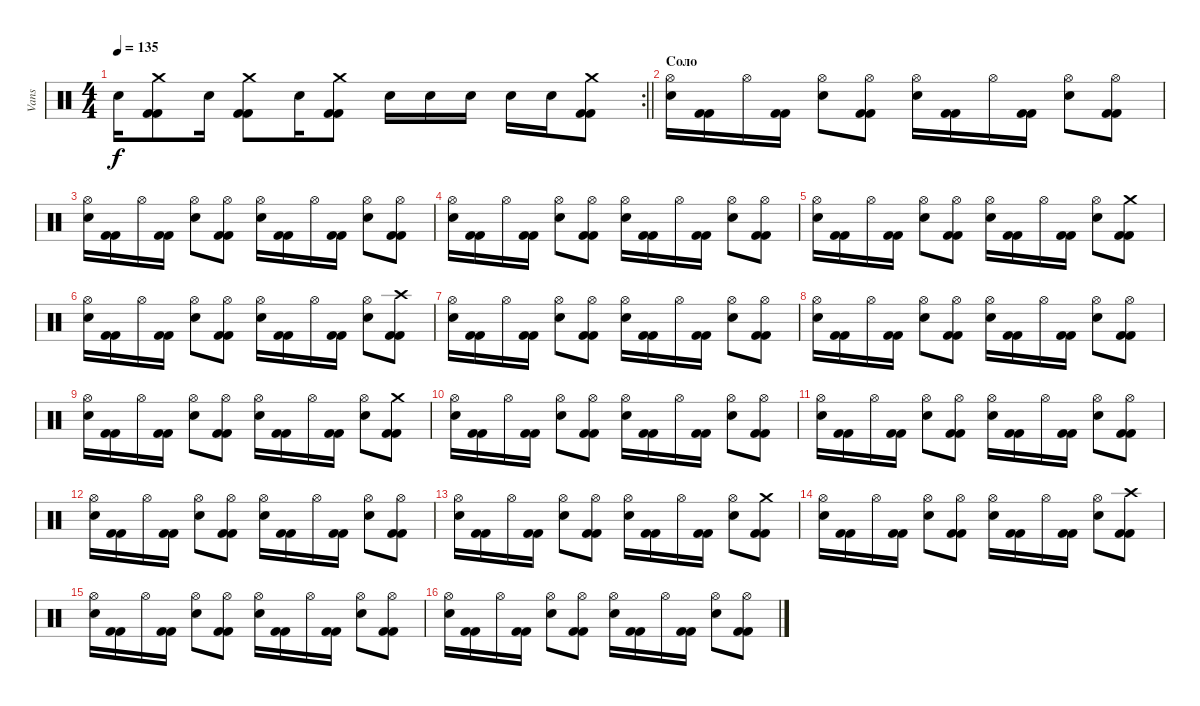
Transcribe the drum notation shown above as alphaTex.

\track ("Vans" "Vans") {instrument percussion}
\staff {score}
\articulation defaults
\rc 2
\ts (4 4)
\tempo 135
\clef neutral
\barLineRight lightlight
\ks c "Electric Snare (hit)".16{dy f}
("Crash medium (hit)" "Kick (hit) 2" "Kick (hit) 2").8 "Electric Snare (hit)".16 ("Crash medium (hit)" "Kick (hit) 2" "Kick (hit) 2").8 "Electric Snare (hit)".16 ("Crash medium (hit)" "Kick (hit) 2" "Kick (hit) 2").8 "Electric Snare (hit)".16 "Electric Snare (hit)".16 "Electric Snare (hit)".16 "Electric Snare (hit)".16 "Electric Snare (hit)".16 ("Crash medium (hit)" "Kick (hit) 2" "Kick (hit) 2").8 |
\section ("" "Соло")
("Hi-Hat (open)" "Electric Snare (hit)").16 ("Kick (hit) 2" "Kick (hit) 2").16 "Hi-Hat (open)".16 ("Kick (hit) 2" "Kick (hit) 2").16 ("Hi-Hat (open)" "Electric Snare (hit)").8 ("Hi-Hat (open)" "Kick (hit) 2" "Kick (hit) 2").8 ("Hi-Hat (open)" "Electric Snare (hit)").16 ("Kick (hit) 2" "Kick (hit) 2").16 "Hi-Hat (open)".16 ("Kick (hit) 2" "Kick (hit) 2").16 ("Hi-Hat (open)" "Electric Snare (hit)").8 ("Hi-Hat (open)" "Kick (hit) 2" "Kick (hit) 2").8 |
("Hi-Hat (open)" "Electric Snare (hit)").16 ("Kick (hit) 2" "Kick (hit) 2").16 "Hi-Hat (open)".16 ("Kick (hit) 2" "Kick (hit) 2").16 ("Hi-Hat (open)" "Electric Snare (hit)").8 ("Hi-Hat (open)" "Kick (hit) 2" "Kick (hit) 2").8 ("Hi-Hat (open)" "Electric Snare (hit)").16 ("Kick (hit) 2" "Kick (hit) 2").16 "Hi-Hat (open)".16 ("Kick (hit) 2" "Kick (hit) 2").16 ("Hi-Hat (open)" "Electric Snare (hit)").8 ("Hi-Hat (open)" "Kick (hit) 2" "Kick (hit) 2").8 |
("Hi-Hat (open)" "Electric Snare (hit)").16 ("Kick (hit) 2" "Kick (hit) 2").16 "Hi-Hat (open)".16 ("Kick (hit) 2" "Kick (hit) 2").16 ("Hi-Hat (open)" "Electric Snare (hit)").8 ("Hi-Hat (open)" "Kick (hit) 2" "Kick (hit) 2").8 ("Hi-Hat (open)" "Electric Snare (hit)").16 ("Kick (hit) 2" "Kick (hit) 2").16 "Hi-Hat (open)".16 ("Kick (hit) 2" "Kick (hit) 2").16 ("Hi-Hat (open)" "Electric Snare (hit)").8 ("Hi-Hat (open)" "Kick (hit) 2" "Kick (hit) 2").8 |
("Hi-Hat (open)" "Electric Snare (hit)").16 ("Kick (hit) 2" "Kick (hit) 2").16 "Hi-Hat (open)".16 ("Kick (hit) 2" "Kick (hit) 2").16 ("Hi-Hat (open)" "Electric Snare (hit)").8 ("Hi-Hat (open)" "Kick (hit) 2" "Kick (hit) 2").8 ("Hi-Hat (open)" "Electric Snare (hit)").16 ("Kick (hit) 2" "Kick (hit) 2").16 "Hi-Hat (open)".16 ("Kick (hit) 2" "Kick (hit) 2").16 ("Hi-Hat (open)" "Electric Snare (hit)").8 ("Crash medium (hit)" "Kick (hit) 2" "Kick (hit) 2").8 |
("Hi-Hat (open)" "Electric Snare (hit)").16 ("Kick (hit) 2" "Kick (hit) 2").16 "Hi-Hat (open)".16 ("Kick (hit) 2" "Kick (hit) 2").16 ("Hi-Hat (open)" "Electric Snare (hit)").8 ("Hi-Hat (open)" "Kick (hit) 2" "Kick (hit) 2").8 ("Hi-Hat (open)" "Electric Snare (hit)").16 ("Kick (hit) 2" "Kick (hit) 2").16 "Hi-Hat (open)".16 ("Kick (hit) 2" "Kick (hit) 2").16 ("Hi-Hat (open)" "Electric Snare (hit)").8 ("Crash high (hit)" "Kick (hit) 2" "Kick (hit) 2").8 |
("Hi-Hat (open)" "Electric Snare (hit)").16 ("Kick (hit) 2" "Kick (hit) 2").16 "Hi-Hat (open)".16 ("Kick (hit) 2" "Kick (hit) 2").16 ("Hi-Hat (open)" "Electric Snare (hit)").8 ("Hi-Hat (open)" "Kick (hit) 2" "Kick (hit) 2").8 ("Hi-Hat (open)" "Electric Snare (hit)").16 ("Kick (hit) 2" "Kick (hit) 2").16 "Hi-Hat (open)".16 ("Kick (hit) 2" "Kick (hit) 2").16 ("Hi-Hat (open)" "Electric Snare (hit)").8 ("Hi-Hat (open)" "Kick (hit) 2" "Kick (hit) 2").8 |
("Hi-Hat (open)" "Electric Snare (hit)").16 ("Kick (hit) 2" "Kick (hit) 2").16 "Hi-Hat (open)".16 ("Kick (hit) 2" "Kick (hit) 2").16 ("Hi-Hat (open)" "Electric Snare (hit)").8 ("Hi-Hat (open)" "Kick (hit) 2" "Kick (hit) 2").8 ("Hi-Hat (open)" "Electric Snare (hit)").16 ("Kick (hit) 2" "Kick (hit) 2").16 "Hi-Hat (open)".16 ("Kick (hit) 2" "Kick (hit) 2").16 ("Hi-Hat (open)" "Electric Snare (hit)").8 ("Hi-Hat (open)" "Kick (hit) 2" "Kick (hit) 2").8 |
("Hi-Hat (open)" "Electric Snare (hit)").16 ("Kick (hit) 2" "Kick (hit) 2").16 "Hi-Hat (open)".16 ("Kick (hit) 2" "Kick (hit) 2").16 ("Hi-Hat (open)" "Electric Snare (hit)").8 ("Hi-Hat (open)" "Kick (hit) 2" "Kick (hit) 2").8 ("Hi-Hat (open)" "Electric Snare (hit)").16 ("Kick (hit) 2" "Kick (hit) 2").16 "Hi-Hat (open)".16 ("Kick (hit) 2" "Kick (hit) 2").16 ("Hi-Hat (open)" "Electric Snare (hit)").8 ("Crash medium (hit)" "Kick (hit) 2" "Kick (hit) 2").8 |
("Hi-Hat (open)" "Electric Snare (hit)").16 ("Kick (hit) 2" "Kick (hit) 2").16 "Hi-Hat (open)".16 ("Kick (hit) 2" "Kick (hit) 2").16 ("Hi-Hat (open)" "Electric Snare (hit)").8 ("Hi-Hat (open)" "Kick (hit) 2" "Kick (hit) 2").8 ("Hi-Hat (open)" "Electric Snare (hit)").16 ("Kick (hit) 2" "Kick (hit) 2").16 "Hi-Hat (open)".16 ("Kick (hit) 2" "Kick (hit) 2").16 ("Hi-Hat (open)" "Electric Snare (hit)").8 ("Hi-Hat (open)" "Kick (hit) 2" "Kick (hit) 2").8 |
("Hi-Hat (open)" "Electric Snare (hit)").16 ("Kick (hit) 2" "Kick (hit) 2").16 "Hi-Hat (open)".16 ("Kick (hit) 2" "Kick (hit) 2").16 ("Hi-Hat (open)" "Electric Snare (hit)").8 ("Hi-Hat (open)" "Kick (hit) 2" "Kick (hit) 2").8 ("Hi-Hat (open)" "Electric Snare (hit)").16 ("Kick (hit) 2" "Kick (hit) 2").16 "Hi-Hat (open)".16 ("Kick (hit) 2" "Kick (hit) 2").16 ("Hi-Hat (open)" "Electric Snare (hit)").8 ("Hi-Hat (open)" "Kick (hit) 2" "Kick (hit) 2").8 |
("Hi-Hat (open)" "Electric Snare (hit)").16 ("Kick (hit) 2" "Kick (hit) 2").16 "Hi-Hat (open)".16 ("Kick (hit) 2" "Kick (hit) 2").16 ("Hi-Hat (open)" "Electric Snare (hit)").8 ("Hi-Hat (open)" "Kick (hit) 2" "Kick (hit) 2").8 ("Hi-Hat (open)" "Electric Snare (hit)").16 ("Kick (hit) 2" "Kick (hit) 2").16 "Hi-Hat (open)".16 ("Kick (hit) 2" "Kick (hit) 2").16 ("Hi-Hat (open)" "Electric Snare (hit)").8 ("Hi-Hat (open)" "Kick (hit) 2" "Kick (hit) 2").8 |
("Hi-Hat (open)" "Electric Snare (hit)").16 ("Kick (hit) 2" "Kick (hit) 2").16 "Hi-Hat (open)".16 ("Kick (hit) 2" "Kick (hit) 2").16 ("Hi-Hat (open)" "Electric Snare (hit)").8 ("Hi-Hat (open)" "Kick (hit) 2" "Kick (hit) 2").8 ("Hi-Hat (open)" "Electric Snare (hit)").16 ("Kick (hit) 2" "Kick (hit) 2").16 "Hi-Hat (open)".16 ("Kick (hit) 2" "Kick (hit) 2").16 ("Hi-Hat (open)" "Electric Snare (hit)").8 ("Crash medium (hit)" "Kick (hit) 2" "Kick (hit) 2").8 |
("Hi-Hat (open)" "Electric Snare (hit)").16 ("Kick (hit) 2" "Kick (hit) 2").16 "Hi-Hat (open)".16 ("Kick (hit) 2" "Kick (hit) 2").16 ("Hi-Hat (open)" "Electric Snare (hit)").8 ("Hi-Hat (open)" "Kick (hit) 2" "Kick (hit) 2").8 ("Hi-Hat (open)" "Electric Snare (hit)").16 ("Kick (hit) 2" "Kick (hit) 2").16 "Hi-Hat (open)".16 ("Kick (hit) 2" "Kick (hit) 2").16 ("Hi-Hat (open)" "Electric Snare (hit)").8 ("Crash high (hit)" "Kick (hit) 2" "Kick (hit) 2").8 |
("Hi-Hat (open)" "Electric Snare (hit)").16 ("Kick (hit) 2" "Kick (hit) 2").16 "Hi-Hat (open)".16 ("Kick (hit) 2" "Kick (hit) 2").16 ("Hi-Hat (open)" "Electric Snare (hit)").8 ("Hi-Hat (open)" "Kick (hit) 2" "Kick (hit) 2").8 ("Hi-Hat (open)" "Electric Snare (hit)").16 ("Kick (hit) 2" "Kick (hit) 2").16 "Hi-Hat (open)".16 ("Kick (hit) 2" "Kick (hit) 2").16 ("Hi-Hat (open)" "Electric Snare (hit)").8 ("Hi-Hat (open)" "Kick (hit) 2" "Kick (hit) 2").8 |
("Hi-Hat (open)" "Electric Snare (hit)").16 ("Kick (hit) 2" "Kick (hit) 2").16 "Hi-Hat (open)".16 ("Kick (hit) 2" "Kick (hit) 2").16 ("Hi-Hat (open)" "Electric Snare (hit)").8 ("Hi-Hat (open)" "Kick (hit) 2" "Kick (hit) 2").8 ("Hi-Hat (open)" "Electric Snare (hit)").16 ("Kick (hit) 2" "Kick (hit) 2").16 "Hi-Hat (open)".16 ("Kick (hit) 2" "Kick (hit) 2").16 ("Hi-Hat (open)" "Electric Snare (hit)").8 ("Hi-Hat (open)" "Kick (hit) 2" "Kick (hit) 2").8
